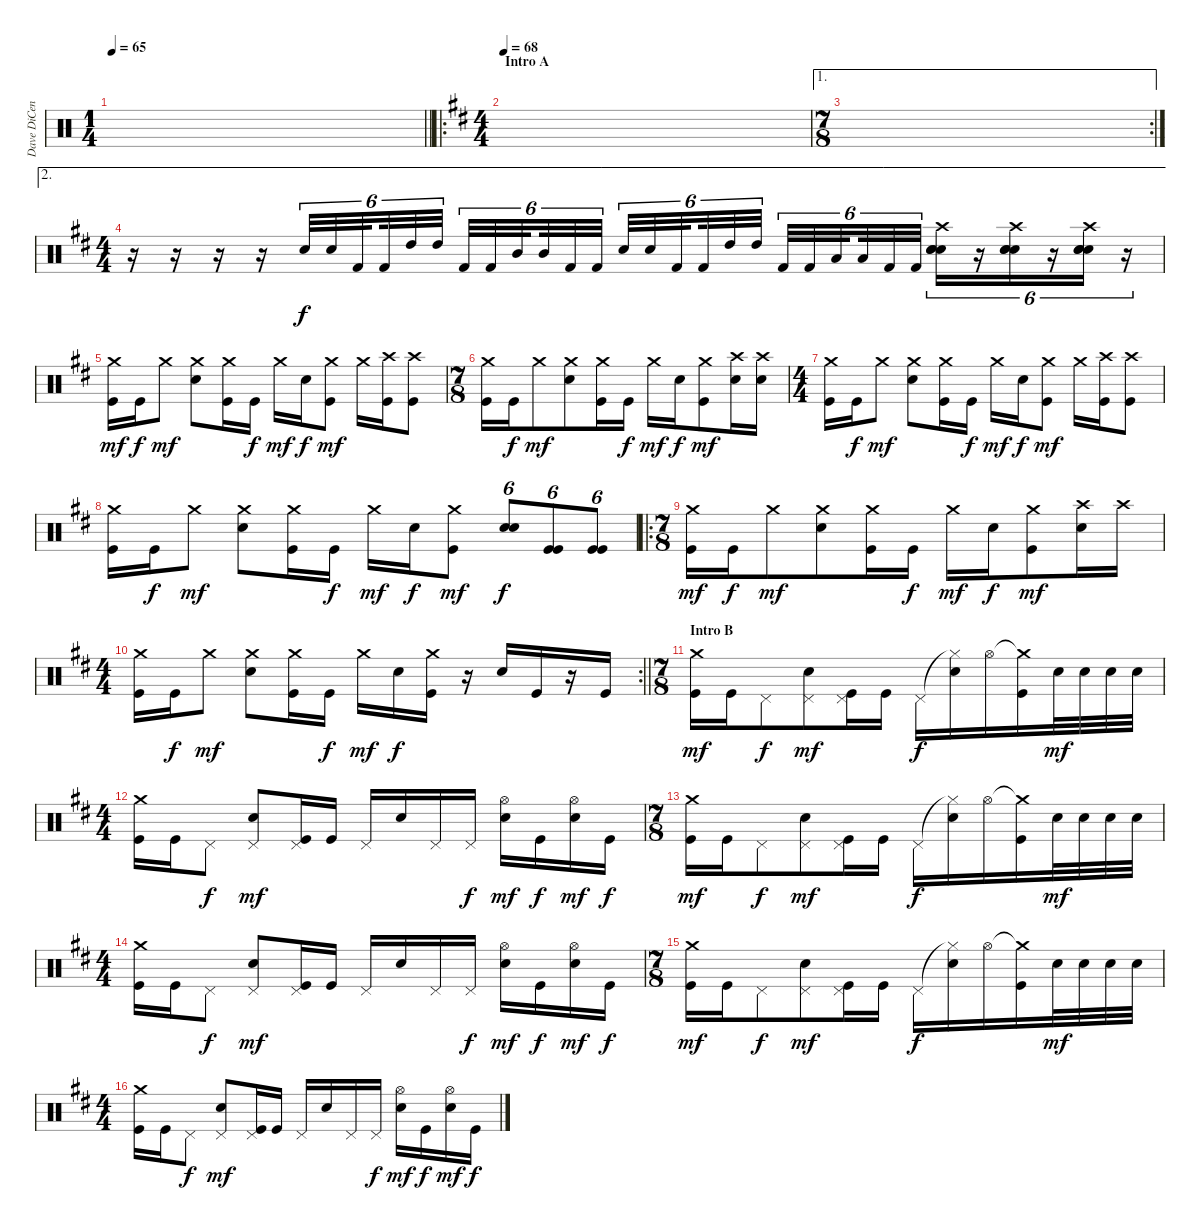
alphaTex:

\track ("Dave DiCenso" "Dave DiCen") {instrument percussion}
\staff {score}
\articulation defaults
\ts (1 4)
\tempo 65
\clef neutral
\barLineRight lightlight
\ks c
|
\ro
\ts (4 4)
\section ("" "Intro A")
\tempo 68
\ks d
|
\ae 1
\rc 2
\ts (7 8)
|
\ae 2
\ts (4 4)
r.16 r.16 r.16 r.16 "Electric Snare (hit)".32{tu (6 4)} "Electric Snare (hit)".32{tu (6 4)} "Kick (hit) 2".32{tu (6 4) beam splitsecondary} "Kick (hit) 2".32{tu (6 4)} "High Tom (hit)".32{tu (6 4)} "High Tom (hit)".32{tu (6 4) beam splitsecondary} "Kick (hit) 2".32{tu (6 4)} "Kick (hit) 2".32{tu (6 4)} "Mid Tom (hit)".32{tu (6 4) beam splitsecondary} "Mid Tom (hit)".32{tu (6 4)} "Kick (hit) 2".32{tu (6 4)} "Kick (hit) 2".32{tu (6 4)} "Electric Snare (hit)".32{tu (6 4)} "Electric Snare (hit)".32{tu (6 4)} "Kick (hit) 2".32{tu (6 4) beam splitsecondary} "Kick (hit) 2".32{tu (6 4)} "High Tom (hit)".32{tu (6 4)} "High Tom (hit)".32{tu (6 4) beam splitsecondary} "Kick (hit) 2".32{tu (6 4)} "Kick (hit) 2".32{tu (6 4)} "Low Tom (hit)".32{tu (6 4) beam splitsecondary} "Low Tom (hit)".32{tu (6 4)} "Kick (hit) 2".32{tu (6 4)} "Kick (hit) 2".32{tu (6 4)} ("Crash high (hit)" "Electric Snare (hit)" "Electric Snare (hit)" "Electric Snare (hit)").16{tu (6 4)} r.16{tu (6 4)} ("Crash high (hit)" "Electric Snare (hit)" "Electric Snare (hit)" "Electric Snare (hit)").16{tu (6 4)} r.16{tu (6 4)} ("Crash high (hit)" "Electric Snare (hit)" "Electric Snare (hit)" "Electric Snare (hit)").16{tu (6 4)} r.16{tu (6 4)} |
("Crash medium (hit)" "Kick (hit)").16{dy mf} "Kick (hit)".16{dy f} "Crash medium (hit)".8{dy mf} ("Crash medium (hit)" "Electric Snare (hit)").8 ("Crash medium (hit)" "Kick (hit)").16 "Kick (hit)".16{dy f} "Crash medium (hit)".16{dy mf} "Electric Snare (hit)".16{dy f} ("Crash medium (hit)" "Kick (hit)").8{dy mf} "Crash medium (hit)".16 ("Crash high (hit)" "Kick (hit)").16 ("Crash high (hit)" "Kick (hit)").8 |
\ts (7 8)
("Crash medium (hit)" "Kick (hit)").16 "Kick (hit)".16{dy f} "Crash medium (hit)".8{dy mf} ("Crash medium (hit)" "Electric Snare (hit)").8 ("Crash medium (hit)" "Kick (hit)").16 "Kick (hit)".16{dy f} "Crash medium (hit)".16{dy mf} "Electric Snare (hit)".16{dy f} ("Crash medium (hit)" "Kick (hit)").8{dy mf} ("Crash high (hit)" "Electric Snare (hit)").16 ("Crash high (hit)" "Electric Snare (hit)").16 |
\ts (4 4)
("Crash medium (hit)" "Kick (hit)").16 "Kick (hit)".16{dy f} "Crash medium (hit)".8{dy mf} ("Crash medium (hit)" "Electric Snare (hit)").8 ("Crash medium (hit)" "Kick (hit)").16 "Kick (hit)".16{dy f} "Crash medium (hit)".16{dy mf} "Electric Snare (hit)".16{dy f} ("Crash medium (hit)" "Kick (hit)").8{dy mf} "Crash medium (hit)".16 ("Crash high (hit)" "Kick (hit)").16 ("Crash high (hit)" "Kick (hit)").8 |
("Crash medium (hit)" "Kick (hit)").16 "Kick (hit)".16{dy f} "Crash medium (hit)".8{dy mf} ("Crash medium (hit)" "Electric Snare (hit)").8 ("Crash medium (hit)" "Kick (hit)").16 "Kick (hit)".16{dy f} "Crash medium (hit)".16{dy mf} "Electric Snare (hit)".16{dy f} ("Crash medium (hit)" "Kick (hit)").8{dy mf} ("Electric Snare (hit)" "Electric Snare (hit)").8{tu (6 4) dy f} ("Kick (hit)" "Kick (hit)").8{tu (6 4)} ("Kick (hit)" "Kick (hit)").8{tu (6 4)} |
\ro
\ts (7 8)
("Crash medium (hit)" "Kick (hit)").16{dy mf} "Kick (hit)".16{dy f} "Crash medium (hit)".8{dy mf} ("Crash medium (hit)" "Electric Snare (hit)").8 ("Crash medium (hit)" "Kick (hit)").16 "Kick (hit)".16{dy f} "Crash medium (hit)".16{dy mf} "Electric Snare (hit)".16{dy f} ("Crash medium (hit)" "Kick (hit)").8{dy mf} ("Crash high (hit)" "Electric Snare (hit)").16 "Crash high (hit)".16 |
\rc 2
\ts (4 4)
\barLineRight lightlight
("Crash medium (hit)" "Kick (hit)").16 "Kick (hit)".16{dy f} "Crash medium (hit)".8{dy mf} ("Crash medium (hit)" "Electric Snare (hit)").8 ("Crash medium (hit)" "Kick (hit)").16 "Kick (hit)".16{dy f} "Crash medium (hit)".16{dy mf} "Electric Snare (hit)".16{dy f} ("Crash medium (hit)" "Kick (hit)").16 r.16 "Electric Snare (hit)".16 "Kick (hit)".16 r.16 "Kick (hit)".16 |
\ts (7 8)
\section ("" "Intro B")
("Crash medium (hit)" "Kick (hit)").16{dy mf} "Kick (hit)".16 "Pedal Hi-Hat (hit)".8{dy f} ("Pedal Hi-Hat (hit)" "Electric Snare (hit)").8{dy mf} ("Pedal Hi-Hat (hit)" "Kick (hit)").16 "Kick (hit)".16 "Pedal Hi-Hat (hit)".16{dy f} ("Hi-Hat (closed)"{t} "Electric Snare (hit)").16 "Hi-Hat (open)".16 ("Crash medium (hit)"{t} "Kick (hit)").16 "Electric Snare (hit)".32{dy mf} "Electric Snare (hit)".32 "Electric Snare (hit)".32 "Electric Snare (hit)".32 |
\ts (4 4)
("Crash medium (hit)" "Kick (hit)").16 "Kick (hit)".16 "Pedal Hi-Hat (hit)".8{dy f} ("Pedal Hi-Hat (hit)" "Electric Snare (hit)").8{dy mf} ("Pedal Hi-Hat (hit)" "Kick (hit)").16 "Kick (hit)".16 "Pedal Hi-Hat (hit)".16 "Electric Snare (hit)".16 "Pedal Hi-Hat (hit)".16 "Pedal Hi-Hat (hit)".16{dy f} ("Hi-Hat (open)" "Electric Snare (hit)").16{dy mf} "Kick (hit)".16{dy f} ("Hi-Hat (open)" "Electric Snare (hit)").16{dy mf} "Kick (hit)".16{dy f} |
\ts (7 8)
("Crash medium (hit)" "Kick (hit)").16{dy mf} "Kick (hit)".16 "Pedal Hi-Hat (hit)".8{dy f} ("Pedal Hi-Hat (hit)" "Electric Snare (hit)").8{dy mf} ("Pedal Hi-Hat (hit)" "Kick (hit)").16 "Kick (hit)".16 "Pedal Hi-Hat (hit)".16{dy f} ("Hi-Hat (closed)"{t} "Electric Snare (hit)").16 "Hi-Hat (open)".16 ("Crash medium (hit)"{t} "Kick (hit)").16 "Electric Snare (hit)".32{dy mf} "Electric Snare (hit)".32 "Electric Snare (hit)".32 "Electric Snare (hit)".32 |
\ts (4 4)
("Crash medium (hit)" "Kick (hit)").16 "Kick (hit)".16 "Pedal Hi-Hat (hit)".8{dy f} ("Pedal Hi-Hat (hit)" "Electric Snare (hit)").8{dy mf} ("Pedal Hi-Hat (hit)" "Kick (hit)").16 "Kick (hit)".16 "Pedal Hi-Hat (hit)".16 "Electric Snare (hit)".16 "Pedal Hi-Hat (hit)".16 "Pedal Hi-Hat (hit)".16{dy f} ("Hi-Hat (open)" "Electric Snare (hit)").16{dy mf} "Kick (hit)".16{dy f} ("Hi-Hat (open)" "Electric Snare (hit)").16{dy mf} "Kick (hit)".16{dy f} |
\ts (7 8)
("Crash medium (hit)" "Kick (hit)").16{dy mf} "Kick (hit)".16 "Pedal Hi-Hat (hit)".8{dy f} ("Pedal Hi-Hat (hit)" "Electric Snare (hit)").8{dy mf} ("Pedal Hi-Hat (hit)" "Kick (hit)").16 "Kick (hit)".16 "Pedal Hi-Hat (hit)".16{dy f} ("Hi-Hat (closed)"{t} "Electric Snare (hit)").16 "Hi-Hat (open)".16 ("Crash medium (hit)"{t} "Kick (hit)").16 "Electric Snare (hit)".32{dy mf} "Electric Snare (hit)".32 "Electric Snare (hit)".32 "Electric Snare (hit)".32 |
\ts (4 4)
("Crash medium (hit)" "Kick (hit)").16 "Kick (hit)".16 "Pedal Hi-Hat (hit)".8{dy f} ("Pedal Hi-Hat (hit)" "Electric Snare (hit)").8{dy mf} ("Pedal Hi-Hat (hit)" "Kick (hit)").16 "Kick (hit)".16 "Pedal Hi-Hat (hit)".16 "Electric Snare (hit)".16 "Pedal Hi-Hat (hit)".16 "Pedal Hi-Hat (hit)".16{dy f} ("Hi-Hat (open)" "Electric Snare (hit)").16{dy mf} "Kick (hit)".16{dy f} ("Hi-Hat (open)" "Electric Snare (hit)").16{dy mf} "Kick (hit)".16{dy f}
